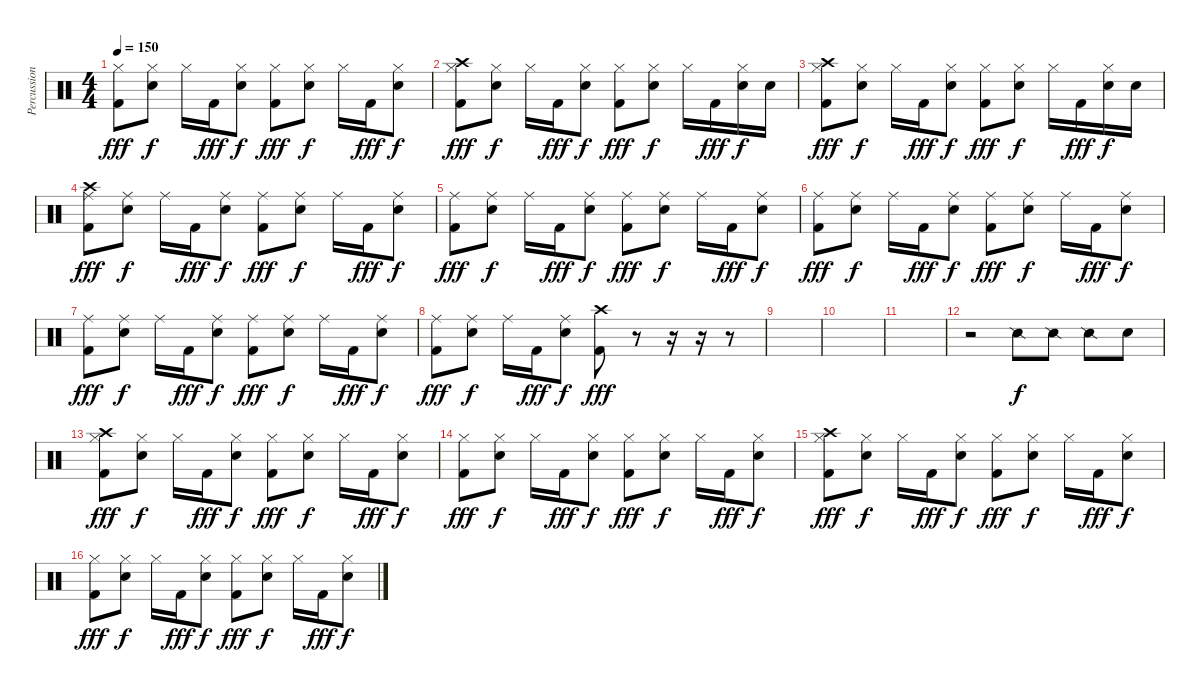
\track ("Percussions" "Percussion") {instrument percussion}
\staff {score}
\articulation defaults
\ts (4 4)
\tempo 150
\clef neutral
\ks c
("Hi-Hat (closed)" "Kick (hit) 2").8{dy fff} ("Hi-Hat (closed)" "Snare (hit) 2").8{dy f} "Hi-Hat (closed)".16 "Kick (hit) 2".16{dy fff} ("Hi-Hat (closed)" "Snare (hit) 2").8{dy f} ("Hi-Hat (closed)" "Kick (hit) 2").8{dy fff} ("Hi-Hat (closed)" "Snare (hit) 2").8{dy f} "Hi-Hat (closed)".16 "Kick (hit) 2".16{dy fff} ("Hi-Hat (closed)" "Snare (hit) 2").8{dy f} |
("Crash high (hit)" "Hi-Hat (closed)" "Kick (hit) 2").8{dy fff} ("Hi-Hat (closed)" "Snare (hit) 2").8{dy f} "Hi-Hat (closed)".16 "Kick (hit) 2".16{dy fff} ("Hi-Hat (closed)" "Snare (hit) 2").8{dy f} ("Hi-Hat (closed)" "Kick (hit) 2").8{dy fff} ("Hi-Hat (closed)" "Snare (hit) 2").8{dy f} "Hi-Hat (closed)".16 "Kick (hit) 2".16{dy fff} ("Hi-Hat (closed)" "Snare (hit) 2").16{dy f} "Snare (hit) 2".16 |
("Crash high (hit)" "Hi-Hat (closed)" "Kick (hit) 2").8{dy fff} ("Hi-Hat (closed)" "Snare (hit) 2").8{dy f} "Hi-Hat (closed)".16 "Kick (hit) 2".16{dy fff} ("Hi-Hat (closed)" "Snare (hit) 2").8{dy f} ("Hi-Hat (closed)" "Kick (hit) 2").8{dy fff} ("Hi-Hat (closed)" "Snare (hit) 2").8{dy f} "Hi-Hat (closed)".16 "Kick (hit) 2".16{dy fff} ("Hi-Hat (closed)" "Snare (hit) 2").16{dy f} "Snare (hit) 2".16 |
("Crash high (hit)" "Ride (middle)" "Kick (hit) 2").8{dy fff} ("Ride (middle)" "Snare (hit) 2").8{dy f} "Ride (middle)".16 "Kick (hit) 2".16{dy fff} ("Ride (middle)" "Snare (hit) 2").8{dy f} ("Ride (middle)" "Kick (hit) 2").8{dy fff} ("Ride (middle)" "Snare (hit) 2").8{dy f} "Ride (middle)".16 "Kick (hit) 2".16{dy fff} ("Ride (middle)" "Snare (hit) 2").8{dy f} |
("Ride (middle)" "Kick (hit) 2").8{dy fff} ("Ride (middle)" "Snare (hit) 2").8{dy f} "Ride (middle)".16 "Kick (hit) 2".16{dy fff} ("Ride (middle)" "Snare (hit) 2").8{dy f} ("Ride (middle)" "Kick (hit) 2").8{dy fff} ("Ride (middle)" "Snare (hit) 2").8{dy f} "Ride (middle)".16 "Kick (hit) 2".16{dy fff} ("Ride (middle)" "Snare (hit) 2").8{dy f} |
("Ride (middle)" "Kick (hit) 2").8{dy fff} ("Ride (middle)" "Snare (hit) 2").8{dy f} "Ride (middle)".16 "Kick (hit) 2".16{dy fff} ("Ride (middle)" "Snare (hit) 2").8{dy f} ("Ride (middle)" "Kick (hit) 2").8{dy fff} ("Ride (middle)" "Snare (hit) 2").8{dy f} "Ride (middle)".16 "Kick (hit) 2".16{dy fff} ("Ride (middle)" "Snare (hit) 2").8{dy f} |
("Ride (middle)" "Kick (hit) 2").8{dy fff} ("Ride (middle)" "Snare (hit) 2").8{dy f} "Ride (middle)".16 "Kick (hit) 2".16{dy fff} ("Ride (middle)" "Snare (hit) 2").8{dy f} ("Ride (middle)" "Kick (hit) 2").8{dy fff} ("Ride (middle)" "Snare (hit) 2").8{dy f} "Ride (middle)".16 "Kick (hit) 2".16{dy fff} ("Ride (middle)" "Snare (hit) 2").8{dy f} |
("Ride (middle)" "Kick (hit) 2").8{dy fff} ("Ride (middle)" "Snare (hit) 2").8{dy f} "Ride (middle)".16 "Kick (hit) 2".16{dy fff} ("Ride (middle)" "Snare (hit) 2").8{dy f} ("Crash high (hit)" "Kick (hit) 2").8{dy fff} r.8 r.16 r.16 r.8 |
|
|
|
r.2 "Snare (side stick) 2".8{dy f} "Snare (side stick) 2".8 "Snare (side stick) 2".8 "Electric Snare (hit)".8 |
("Crash high (hit)" "Hi-Hat (closed)" "Kick (hit) 2").8{dy fff} ("Hi-Hat (closed)" "Snare (hit) 2").8{dy f} "Hi-Hat (closed)".16 "Kick (hit) 2".16{dy fff} ("Hi-Hat (closed)" "Snare (hit) 2").8{dy f} ("Hi-Hat (closed)" "Kick (hit) 2").8{dy fff} ("Hi-Hat (closed)" "Snare (hit) 2").8{dy f} "Hi-Hat (closed)".16 "Kick (hit) 2".16{dy fff} ("Hi-Hat (closed)" "Snare (hit) 2").8{dy f} |
("Hi-Hat (closed)" "Kick (hit) 2").8{dy fff} ("Hi-Hat (closed)" "Snare (hit) 2").8{dy f} "Hi-Hat (closed)".16 "Kick (hit) 2".16{dy fff} ("Hi-Hat (closed)" "Snare (hit) 2").8{dy f} ("Hi-Hat (closed)" "Kick (hit) 2").8{dy fff} ("Hi-Hat (closed)" "Snare (hit) 2").8{dy f} "Hi-Hat (closed)".16 "Kick (hit) 2".16{dy fff} ("Hi-Hat (closed)" "Snare (hit) 2").8{dy f} |
("Crash high (hit)" "Hi-Hat (closed)" "Kick (hit) 2").8{dy fff} ("Hi-Hat (closed)" "Snare (hit) 2").8{dy f} "Hi-Hat (closed)".16 "Kick (hit) 2".16{dy fff} ("Hi-Hat (closed)" "Snare (hit) 2").8{dy f} ("Hi-Hat (closed)" "Kick (hit) 2").8{dy fff} ("Hi-Hat (closed)" "Snare (hit) 2").8{dy f} "Hi-Hat (closed)".16 "Kick (hit) 2".16{dy fff} ("Hi-Hat (closed)" "Snare (hit) 2").8{dy f} |
("Hi-Hat (closed)" "Kick (hit) 2").8{dy fff} ("Hi-Hat (closed)" "Snare (hit) 2").8{dy f} "Hi-Hat (closed)".16 "Kick (hit) 2".16{dy fff} ("Hi-Hat (closed)" "Snare (hit) 2").8{dy f} ("Hi-Hat (closed)" "Kick (hit) 2").8{dy fff} ("Hi-Hat (closed)" "Snare (hit) 2").8{dy f} "Hi-Hat (closed)".16 "Kick (hit) 2".16{dy fff} ("Hi-Hat (closed)" "Snare (hit) 2").8{dy f}
